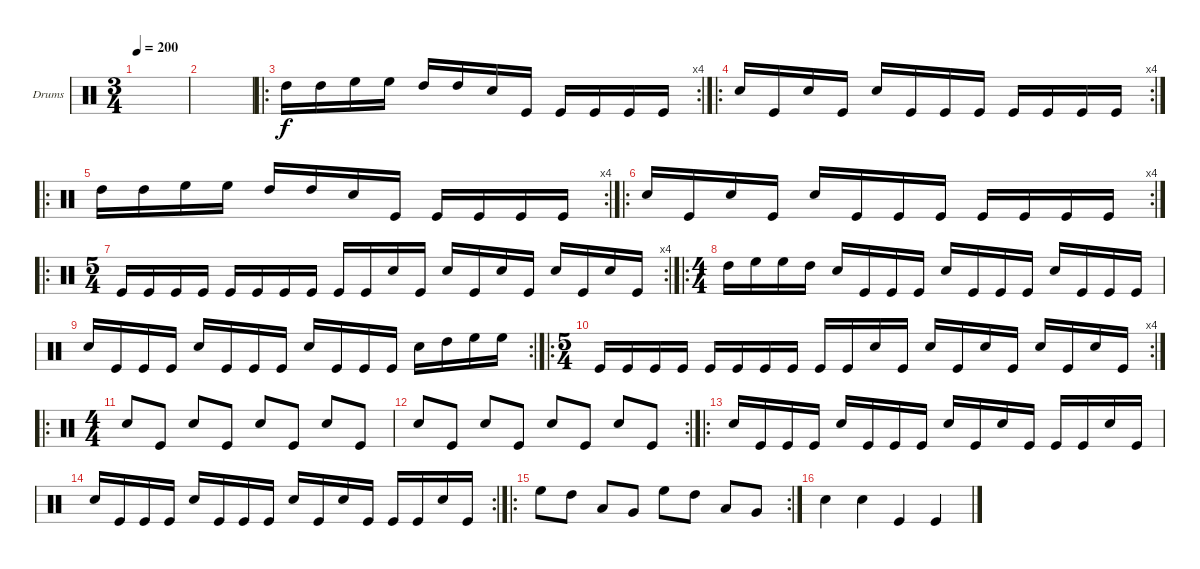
\defaultSystemsLayout 4
\bracketExtendMode groupsimilarinstruments
\firstSystemTrackNameOrientation horizontal
\otherSystemsTrackNameOrientation horizontal
\track ("Corpse Blaster" "Drums") {instrument percussion}
\staff {score}
\articulation defaults
\ts (3 4)
\tempo 200
\clef neutral
\ks c
|
|
\ro
\rc 4 "High Tom (hit)".16 "High Tom (hit)".16 "High Floor Tom (hit)".16 "High Floor Tom (hit)".16 "High Tom (hit)".16 "High Tom (hit)".16 "Snare (hit) 2".16 "Kick (hit)".16 "Kick (hit)".16 "Kick (hit)".16 "Kick (hit)".16 "Kick (hit)".16
|
\ro
\rc 4 "Snare (hit) 2".16 "Kick (hit)".16 "Snare (hit) 2".16 "Kick (hit)".16 "Snare (hit) 2".16 "Kick (hit)".16 "Kick (hit)".16 "Kick (hit)".16 "Kick (hit)".16 "Kick (hit)".16 "Kick (hit)".16 "Kick (hit)".16
|
\ro
\rc 4 "High Tom (hit)".16 "High Tom (hit)".16 "High Floor Tom (hit)".16 "High Floor Tom (hit)".16 "High Tom (hit)".16 "High Tom (hit)".16 "Snare (hit) 2".16 "Kick (hit)".16 "Kick (hit)".16 "Kick (hit)".16 "Kick (hit)".16 "Kick (hit)".16
|
\ro
\rc 4 "Snare (hit) 2".16 "Kick (hit)".16 "Snare (hit) 2".16 "Kick (hit)".16 "Snare (hit) 2".16 "Kick (hit)".16 "Kick (hit)".16 "Kick (hit)".16 "Kick (hit)".16 "Kick (hit)".16 "Kick (hit)".16 "Kick (hit)".16
|
\ro
\rc 4
\ts (5 4)
"Kick (hit)".16 "Kick (hit)".16 "Kick (hit)".16 "Kick (hit)".16 "Kick (hit)".16 "Kick (hit)".16 "Kick (hit)".16 "Kick (hit)".16 "Kick (hit)".16 "Kick (hit)".16 "Snare (hit) 2".16 "Kick (hit)".16 "Snare (hit) 2".16 "Kick (hit)".16 "Snare (hit) 2".16 "Kick (hit)".16 "Snare (hit) 2".16 "Kick (hit)".16 "Snare (hit) 2".16 "Kick (hit)".16 |
\ro
\ts (4 4)
"High Tom (hit)".16 "High Floor Tom (hit)".16 "High Floor Tom (hit)".16 "High Tom (hit)".16 "Snare (hit) 2".16 "Kick (hit)".16 "Kick (hit)".16 "Kick (hit)".16 "Snare (hit) 2".16 "Kick (hit)".16 "Kick (hit)".16 "Kick (hit)".16 "Snare (hit) 2".16 "Kick (hit)".16 "Kick (hit)".16 "Kick (hit)".16 |
\rc 2 "Snare (hit) 2".16 "Kick (hit)".16 "Kick (hit)".16 "Kick (hit)".16 "Snare (hit) 2".16 "Kick (hit)".16 "Kick (hit)".16 "Kick (hit)".16 "Snare (hit) 2".16 "Kick (hit)".16 "Kick (hit)".16 "Kick (hit)".16 "Snare (hit) 2".16 "High Tom (hit)".16 "High Floor Tom (hit)".16 "High Floor Tom (hit)".16
|
\ro
\rc 4
\ts (5 4)
"Kick (hit)".16 "Kick (hit)".16 "Kick (hit)".16 "Kick (hit)".16 "Kick (hit)".16 "Kick (hit)".16 "Kick (hit)".16 "Kick (hit)".16 "Kick (hit)".16 "Kick (hit)".16 "Snare (hit) 2".16 "Kick (hit)".16 "Snare (hit) 2".16 "Kick (hit)".16 "Snare (hit) 2".16 "Kick (hit)".16 "Snare (hit) 2".16 "Kick (hit)".16 "Snare (hit) 2".16 "Kick (hit)".16 |
\ro
\ts (4 4)
"Snare (hit) 2".8 "Kick (hit)".8 "Snare (hit) 2".8 "Kick (hit)".8 "Snare (hit) 2".8 "Kick (hit)".8 "Snare (hit) 2".8 "Kick (hit)".8 |
\rc 2 "Snare (hit) 2".8 "Kick (hit)".8 "Snare (hit) 2".8 "Kick (hit)".8 "Snare (hit) 2".8 "Kick (hit)".8 "Snare (hit) 2".8 "Kick (hit)".8
|
\ro "Snare (hit) 2".16 "Kick (hit)".16 "Kick (hit)".16 "Kick (hit)".16 "Snare (hit) 2".16 "Kick (hit)".16 "Kick (hit)".16 "Kick (hit)".16 "Snare (hit) 2".16 "Kick (hit)".16 "Snare (hit) 2".16 "Kick (hit)".16 "Kick (hit)".16 "Kick (hit)".16 "Snare (hit) 2".16 "Kick (hit)".16
|
\rc 2 "Snare (hit) 2".16 "Kick (hit)".16 "Kick (hit)".16 "Kick (hit)".16 "Snare (hit) 2".16 "Kick (hit)".16 "Kick (hit)".16 "Kick (hit)".16 "Snare (hit) 2".16 "Kick (hit)".16 "Snare (hit) 2".16 "Kick (hit)".16 "Kick (hit)".16 "Kick (hit)".16 "Snare (hit) 2".16 "Kick (hit)".16
|
\ro
\rc 2 "High Floor Tom (hit)".8 "High Tom (hit)".8 "Low Tom (hit)".8 "Very Low Tom (hit)".8 "High Floor Tom (hit)".8 "High Tom (hit)".8 "Low Tom (hit)".8 "Very Low Tom (hit)".8
|
"Snare (hit) 2".4 "Snare (hit) 2".4 "Kick (hit)".4 "Kick (hit)".4
